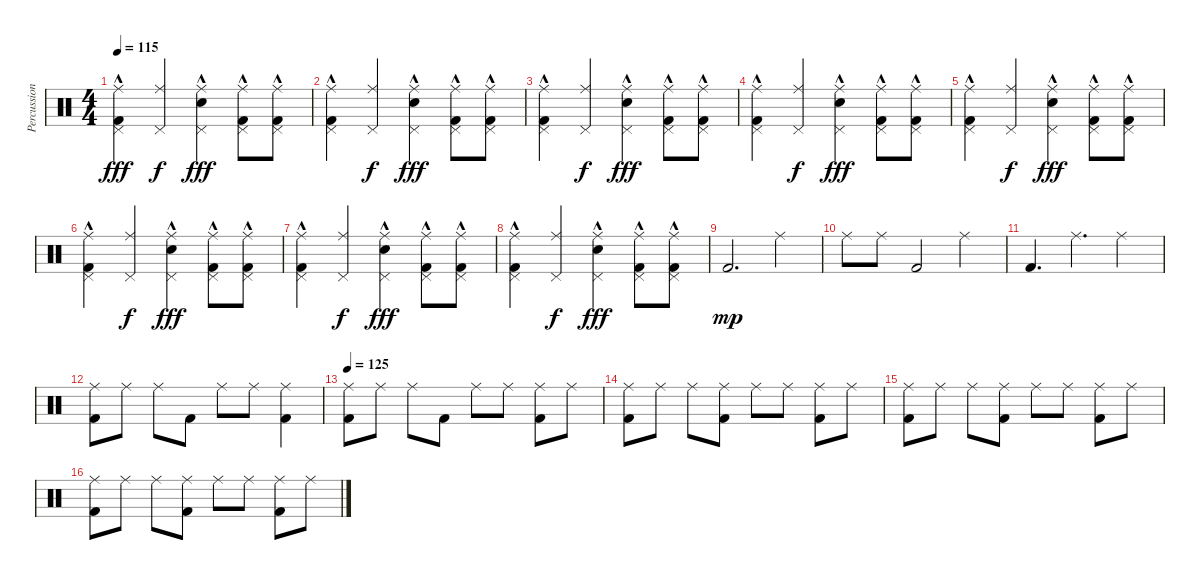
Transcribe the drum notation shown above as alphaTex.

\track ("Percussion" "Percussion") {instrument percussion}
\staff {score}
\articulation defaults
\ts (4 4)
\tempo 115
\clef neutral
\ks c
("Ride (middle)" "Pedal Hi-Hat (hit)" "Kick (hit) 2"{hac}).4{dy fff} ("Ride (middle)" "Pedal Hi-Hat (hit)").4{dy f} ("Ride (middle)" "Snare (hit) 2"{hac} "Pedal Hi-Hat (hit)").4{dy fff} ("Ride (middle)" "Pedal Hi-Hat (hit)" "Kick (hit) 2"{hac}).8 ("Ride (middle)" "Pedal Hi-Hat (hit)" "Kick (hit) 2"{hac}).8 |
("Ride (middle)" "Pedal Hi-Hat (hit)" "Kick (hit) 2"{hac}).4 ("Ride (middle)" "Pedal Hi-Hat (hit)").4{dy f} ("Ride (middle)" "Snare (hit) 2"{hac} "Pedal Hi-Hat (hit)").4{dy fff} ("Ride (middle)" "Pedal Hi-Hat (hit)" "Kick (hit) 2"{hac}).8 ("Ride (middle)" "Pedal Hi-Hat (hit)" "Kick (hit) 2"{hac}).8 |
("Ride (middle)" "Pedal Hi-Hat (hit)" "Kick (hit) 2"{hac}).4 ("Ride (middle)" "Pedal Hi-Hat (hit)").4{dy f} ("Ride (middle)" "Snare (hit) 2"{hac} "Pedal Hi-Hat (hit)").4{dy fff} ("Ride (middle)" "Pedal Hi-Hat (hit)" "Kick (hit) 2"{hac}).8 ("Ride (middle)" "Pedal Hi-Hat (hit)" "Kick (hit) 2"{hac}).8 |
("Ride (middle)" "Pedal Hi-Hat (hit)" "Kick (hit) 2"{hac}).4 ("Ride (middle)" "Pedal Hi-Hat (hit)").4{dy f} ("Ride (middle)" "Snare (hit) 2"{hac} "Pedal Hi-Hat (hit)").4{dy fff} ("Ride (middle)" "Pedal Hi-Hat (hit)" "Kick (hit) 2"{hac}).8 ("Ride (middle)" "Pedal Hi-Hat (hit)" "Kick (hit) 2"{hac}).8 |
("Ride (middle)" "Pedal Hi-Hat (hit)" "Kick (hit) 2"{hac}).4 ("Ride (middle)" "Pedal Hi-Hat (hit)").4{dy f} ("Ride (middle)" "Snare (hit) 2"{hac} "Pedal Hi-Hat (hit)").4{dy fff} ("Ride (middle)" "Pedal Hi-Hat (hit)" "Kick (hit) 2"{hac}).8 ("Ride (middle)" "Pedal Hi-Hat (hit)" "Kick (hit) 2"{hac}).8 |
("Ride (middle)" "Pedal Hi-Hat (hit)" "Kick (hit) 2"{hac}).4 ("Ride (middle)" "Pedal Hi-Hat (hit)").4{dy f} ("Ride (middle)" "Snare (hit) 2"{hac} "Pedal Hi-Hat (hit)").4{dy fff} ("Ride (middle)" "Pedal Hi-Hat (hit)" "Kick (hit) 2"{hac}).8 ("Ride (middle)" "Pedal Hi-Hat (hit)" "Kick (hit) 2"{hac}).8 |
("Ride (middle)" "Pedal Hi-Hat (hit)" "Kick (hit) 2"{hac}).4 ("Ride (middle)" "Pedal Hi-Hat (hit)").4{dy f} ("Ride (middle)" "Snare (hit) 2"{hac} "Pedal Hi-Hat (hit)").4{dy fff} ("Ride (middle)" "Pedal Hi-Hat (hit)" "Kick (hit) 2"{hac}).8 ("Ride (middle)" "Pedal Hi-Hat (hit)" "Kick (hit) 2"{hac}).8 |
("Ride (middle)" "Pedal Hi-Hat (hit)" "Kick (hit) 2"{hac}).4 ("Ride (middle)" "Pedal Hi-Hat (hit)").4{dy f} ("Ride (middle)" "Snare (hit) 2"{hac} "Pedal Hi-Hat (hit)").4{dy fff} ("Ride (middle)" "Pedal Hi-Hat (hit)" "Kick (hit) 2"{hac}).8 ("Ride (middle)" "Pedal Hi-Hat (hit)" "Kick (hit) 2"{hac}).8 |
"Kick (hit) 2".2{d dy mp} "Ride (middle)".4 |
"Ride (middle)".8 "Ride (middle)".8 "Kick (hit) 2".2 "Ride (middle)".4 |
"Kick (hit) 2".4{d} "Ride (middle)".4{d} "Ride (middle)".4 |
("Ride (middle)" "Kick (hit) 2").8 "Ride (middle)".8 "Ride (middle)".8 "Kick (hit) 2".8 "Ride (middle)".8 "Ride (middle)".8 ("Ride (middle)" "Kick (hit) 2").4 |
\tempo 125
("Ride (middle)" "Kick (hit) 2").8 "Ride (middle)".8 "Ride (middle)".8 "Kick (hit) 2".8 "Ride (middle)".8 "Ride (middle)".8 ("Ride (middle)" "Kick (hit) 2").8 "Ride (middle)".8 |
("Ride (middle)" "Kick (hit) 2").8 "Ride (middle)".8 "Ride (middle)".8 ("Ride (middle)" "Kick (hit) 2").8 "Ride (middle)".8 "Ride (middle)".8 ("Ride (middle)" "Kick (hit) 2").8 "Ride (middle)".8 |
("Ride (middle)" "Kick (hit) 2").8 "Ride (middle)".8 "Ride (middle)".8 ("Ride (middle)" "Kick (hit) 2").8 "Ride (middle)".8 "Ride (middle)".8 ("Ride (middle)" "Kick (hit) 2").8 "Ride (middle)".8 |
("Ride (middle)" "Kick (hit) 2").8 "Ride (middle)".8 "Ride (middle)".8 ("Ride (middle)" "Kick (hit) 2").8 "Ride (middle)".8 "Ride (middle)".8 ("Ride (middle)" "Kick (hit) 2").8 "Ride (middle)".8
